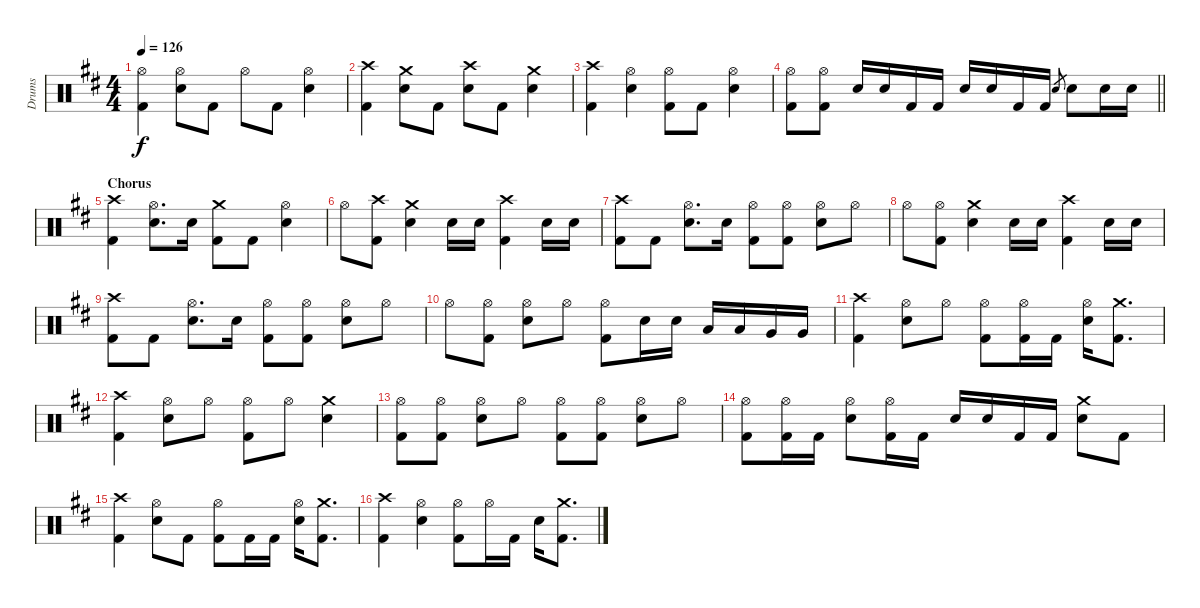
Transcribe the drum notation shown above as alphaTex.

\track ("Drums" "Drums") {instrument percussion}
\staff {score}
\articulation defaults
\ts (4 4)
\tempo 126
\clef neutral
\ks d
("Hi-Hat (open)" "Kick (hit) 2").4{dy f} ("Hi-Hat (open)" "Electric Snare (hit)").8 "Kick (hit) 2".8 "Hi-Hat (open)".8 "Kick (hit) 2".8 ("Hi-Hat (open)" "Electric Snare (hit)").4 |
("Crash high (hit)" "Kick (hit) 2").4 ("Crash medium (hit)" "Electric Snare (hit)").8 "Kick (hit) 2".8 ("Crash high (hit)" "Electric Snare (hit)").8 "Kick (hit) 2".8 ("Crash medium (hit)" "Electric Snare (hit)").4 |
("Crash high (hit)" "Kick (hit) 2").4 ("Hi-Hat (open)" "Electric Snare (hit)").4 ("Hi-Hat (open)" "Kick (hit) 2").8 "Kick (hit) 2".8 ("Hi-Hat (open)" "Electric Snare (hit)").4 |
\barLineRight lightlight
("Hi-Hat (open)" "Kick (hit) 2").8 ("Hi-Hat (open)" "Kick (hit) 2").8 "Electric Snare (hit)".16 "Electric Snare (hit)".16 "Kick (hit) 2".16 "Kick (hit) 2".16 "Electric Snare (hit)".16 "Electric Snare (hit)".16 "Kick (hit) 2".16 "Kick (hit) 2".16 "Electric Snare (hit)".8{gr} "Electric Snare (hit)".8 "Electric Snare (hit)".16 "Electric Snare (hit)".16 |
\section ("" "Chorus")
("Crash high (hit)" "Kick (hit) 2").4 ("Hi-Hat (open)" "Electric Snare (hit)").8{d} "Electric Snare (hit)".16 ("Crash medium (hit)" "Kick (hit) 2").8 "Kick (hit) 2".8 ("Hi-Hat (open)" "Electric Snare (hit)").4 |
"Hi-Hat (open)".8 ("Crash high (hit)" "Kick (hit) 2").8 ("Crash medium (hit)" "Electric Snare (hit)").4 "Electric Snare (hit)".16 "Electric Snare (hit)".16 ("Crash high (hit)" "Kick (hit) 2").4 "Electric Snare (hit)".16 "Electric Snare (hit)".16 |
("Crash high (hit)" "Kick (hit) 2").8 "Kick (hit) 2".8 ("Hi-Hat (open)" "Electric Snare (hit)").8{d} "Electric Snare (hit)".16 ("Hi-Hat (open)" "Kick (hit) 2").8 ("Hi-Hat (open)" "Kick (hit) 2").8 ("Hi-Hat (open)" "Electric Snare (hit)").8 "Hi-Hat (open)".8 |
"Hi-Hat (open)".8 ("Hi-Hat (open)" "Kick (hit) 2").8 ("Crash medium (hit)" "Electric Snare (hit)").4 "Electric Snare (hit)".16 "Electric Snare (hit)".16 ("Crash high (hit)" "Kick (hit) 2").4 "Electric Snare (hit)".16 "Electric Snare (hit)".16 |
("Crash high (hit)" "Kick (hit) 2").8 "Kick (hit) 2".8 ("Hi-Hat (open)" "Electric Snare (hit)").8{d} "Electric Snare (hit)".16 ("Hi-Hat (open)" "Kick (hit) 2").8 ("Hi-Hat (open)" "Kick (hit) 2").8 ("Hi-Hat (open)" "Electric Snare (hit)").8 "Hi-Hat (open)".8 |
"Hi-Hat (open)".8 ("Hi-Hat (open)" "Kick (hit) 2").8 ("Hi-Hat (open)" "Electric Snare (hit)").8 "Hi-Hat (open)".8 ("Hi-Hat (open)" "Kick (hit) 2").8 "Electric Snare (hit)".16 "Electric Snare (hit)".16 "Low Tom (hit)".16 "Low Tom (hit)".16 "Very Low Tom (hit)".16 "Very Low Tom (hit)".16 |
("Crash high (hit)" "Kick (hit) 2").4 ("Hi-Hat (open)" "Electric Snare (hit)").8 "Hi-Hat (open)".8 ("Hi-Hat (open)" "Kick (hit) 2").8 ("Hi-Hat (open)" "Kick (hit) 2").16 "Kick (hit) 2".16 ("Hi-Hat (open)" "Electric Snare (hit)").16 ("Crash medium (hit)" "Kick (hit) 2").8{d} |
("Crash high (hit)" "Kick (hit) 2").4 ("Hi-Hat (open)" "Electric Snare (hit)").8 "Hi-Hat (open)".8 ("Hi-Hat (open)" "Kick (hit) 2").8 "Hi-Hat (open)".8 ("Crash medium (hit)" "Electric Snare (hit)").4 |
("Hi-Hat (open)" "Kick (hit) 2").8 ("Hi-Hat (open)" "Kick (hit) 2").8 ("Hi-Hat (open)" "Electric Snare (hit)").8 "Hi-Hat (open)".8 ("Hi-Hat (open)" "Kick (hit) 2").8 ("Hi-Hat (open)" "Kick (hit) 2").8 ("Hi-Hat (open)" "Electric Snare (hit)").8 "Hi-Hat (open)".8 |
("Hi-Hat (open)" "Kick (hit) 2").8 ("Hi-Hat (open)" "Kick (hit) 2").16 "Kick (hit) 2".16 ("Hi-Hat (open)" "Electric Snare (hit)").8 ("Hi-Hat (open)" "Kick (hit) 2").16 "Kick (hit) 2".16 "Electric Snare (hit)".16 "Electric Snare (hit)".16 "Kick (hit) 2".16 "Kick (hit) 2".16 ("Crash medium (hit)" "Electric Snare (hit)").8 "Kick (hit) 2".8 |
("Crash high (hit)" "Kick (hit) 2").4 ("Hi-Hat (open)" "Electric Snare (hit)").8 "Kick (hit) 2".8 ("Hi-Hat (open)" "Kick (hit) 2").8 "Kick (hit) 2".16 "Kick (hit) 2".16 ("Hi-Hat (open)" "Electric Snare (hit)").16 ("Crash medium (hit)" "Kick (hit) 2").8{d} |
("Crash high (hit)" "Kick (hit) 2").4 ("Hi-Hat (open)" "Electric Snare (hit)").4 ("Hi-Hat (open)" "Kick (hit) 2").8 "Hi-Hat (open)".16 "Kick (hit) 2".16 "Electric Snare (hit)".16 ("Crash medium (hit)" "Kick (hit) 2").8{d}
